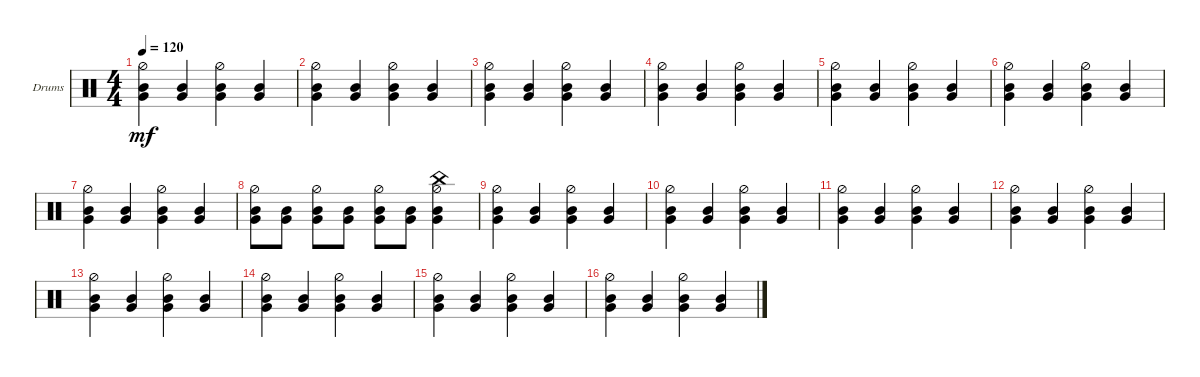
\defaultSystemsLayout 4
\bracketExtendMode groupsimilarinstruments
\firstSystemTrackNameOrientation horizontal
\otherSystemsTrackNameOrientation horizontal
\track ("Drumkit" "Drums") {instrument percussion}
\staff {score}
\articulation defaults
\ts (4 4)
\tempo 120
\clef neutral
\ks c
("Mid Tom (hit)" "Very Low Tom (hit)" "Hi-Hat (half)").4{dy mf} ("Mid Tom (hit)" "Very Low Tom (hit)").4 ("Mid Tom (hit)" "Very Low Tom (hit)" "Hi-Hat (half)").4 ("Mid Tom (hit)" "Very Low Tom (hit)").4 |
("Mid Tom (hit)" "Very Low Tom (hit)" "Hi-Hat (half)").4 ("Mid Tom (hit)" "Very Low Tom (hit)").4 ("Mid Tom (hit)" "Very Low Tom (hit)" "Hi-Hat (half)").4 ("Mid Tom (hit)" "Very Low Tom (hit)").4 |
("Mid Tom (hit)" "Very Low Tom (hit)" "Hi-Hat (half)").4 ("Mid Tom (hit)" "Very Low Tom (hit)").4 ("Mid Tom (hit)" "Very Low Tom (hit)" "Hi-Hat (half)").4 ("Mid Tom (hit)" "Very Low Tom (hit)").4 |
("Mid Tom (hit)" "Very Low Tom (hit)" "Hi-Hat (half)").4 ("Mid Tom (hit)" "Very Low Tom (hit)").4 ("Mid Tom (hit)" "Very Low Tom (hit)" "Hi-Hat (half)").4 ("Mid Tom (hit)" "Very Low Tom (hit)").4 |
("Mid Tom (hit)" "Very Low Tom (hit)" "Hi-Hat (half)").4 ("Mid Tom (hit)" "Very Low Tom (hit)").4 ("Mid Tom (hit)" "Very Low Tom (hit)" "Hi-Hat (half)").4 ("Mid Tom (hit)" "Very Low Tom (hit)").4 |
("Mid Tom (hit)" "Very Low Tom (hit)" "Hi-Hat (half)").4 ("Mid Tom (hit)" "Very Low Tom (hit)").4 ("Mid Tom (hit)" "Very Low Tom (hit)" "Hi-Hat (half)").4 ("Mid Tom (hit)" "Very Low Tom (hit)").4 |
("Mid Tom (hit)" "Very Low Tom (hit)" "Hi-Hat (half)").4 ("Mid Tom (hit)" "Very Low Tom (hit)").4 ("Mid Tom (hit)" "Very Low Tom (hit)" "Hi-Hat (half)").4 ("Mid Tom (hit)" "Very Low Tom (hit)").4 |
("Mid Tom (hit)" "Very Low Tom (hit)" "Hi-Hat (half)").8 ("Mid Tom (hit)" "Very Low Tom (hit)").8 ("Mid Tom (hit)" "Very Low Tom (hit)" "Hi-Hat (half)").8 ("Mid Tom (hit)" "Very Low Tom (hit)").8 ("Mid Tom (hit)" "Very Low Tom (hit)" "Hi-Hat (half)").8 ("Mid Tom (hit)" "Very Low Tom (hit)").8 ("Mid Tom (hit)" "Very Low Tom (hit)" "Hi-Hat (half)" "China (hit)").4 |
("Mid Tom (hit)" "Very Low Tom (hit)" "Hi-Hat (half)").4 ("Mid Tom (hit)" "Very Low Tom (hit)").4 ("Mid Tom (hit)" "Very Low Tom (hit)" "Hi-Hat (half)").4 ("Mid Tom (hit)" "Very Low Tom (hit)").4 |
("Mid Tom (hit)" "Very Low Tom (hit)" "Hi-Hat (half)").4 ("Mid Tom (hit)" "Very Low Tom (hit)").4 ("Mid Tom (hit)" "Very Low Tom (hit)" "Hi-Hat (half)").4 ("Mid Tom (hit)" "Very Low Tom (hit)").4 |
("Mid Tom (hit)" "Very Low Tom (hit)" "Hi-Hat (half)").4 ("Mid Tom (hit)" "Very Low Tom (hit)").4 ("Mid Tom (hit)" "Very Low Tom (hit)" "Hi-Hat (half)").4 ("Mid Tom (hit)" "Very Low Tom (hit)").4 |
("Mid Tom (hit)" "Very Low Tom (hit)" "Hi-Hat (half)").4 ("Mid Tom (hit)" "Very Low Tom (hit)").4 ("Mid Tom (hit)" "Very Low Tom (hit)" "Hi-Hat (half)").4 ("Mid Tom (hit)" "Very Low Tom (hit)").4 |
("Mid Tom (hit)" "Very Low Tom (hit)" "Hi-Hat (half)").4 ("Mid Tom (hit)" "Very Low Tom (hit)").4 ("Mid Tom (hit)" "Very Low Tom (hit)" "Hi-Hat (half)").4 ("Mid Tom (hit)" "Very Low Tom (hit)").4 |
("Mid Tom (hit)" "Very Low Tom (hit)" "Hi-Hat (half)").4 ("Mid Tom (hit)" "Very Low Tom (hit)").4 ("Mid Tom (hit)" "Very Low Tom (hit)" "Hi-Hat (half)").4 ("Mid Tom (hit)" "Very Low Tom (hit)").4 |
("Mid Tom (hit)" "Very Low Tom (hit)" "Hi-Hat (half)").4 ("Mid Tom (hit)" "Very Low Tom (hit)").4 ("Mid Tom (hit)" "Very Low Tom (hit)" "Hi-Hat (half)").4 ("Mid Tom (hit)" "Very Low Tom (hit)").4 |
("Mid Tom (hit)" "Very Low Tom (hit)" "Hi-Hat (half)").4 ("Mid Tom (hit)" "Very Low Tom (hit)").4 ("Mid Tom (hit)" "Very Low Tom (hit)" "Hi-Hat (half)").4 ("Mid Tom (hit)" "Very Low Tom (hit)").4
